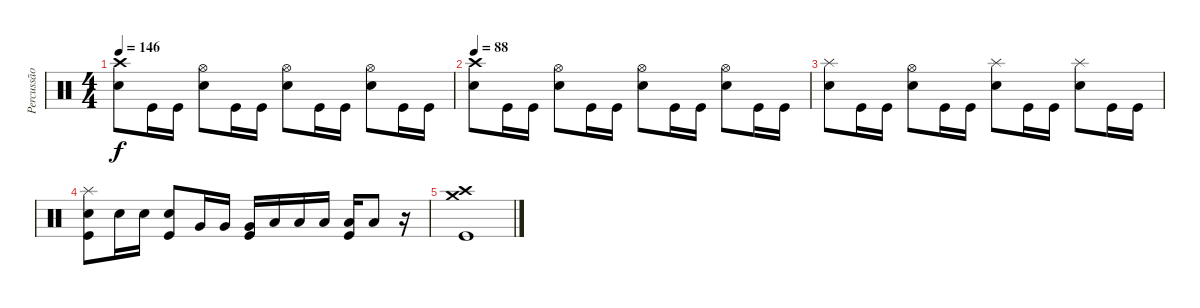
\track ("Percussão" "Percussão") {instrument percussion}
\staff {score}
\articulation defaults
\ts (4 4)
\tempo 146
\clef neutral
\ks c
("Crash high (hit)" "Snare (hit) 2").8{dy f} "Kick (hit)".16 "Kick (hit)".16 ("Hi-Hat (open)" "Snare (hit) 2").8 "Kick (hit)".16 "Kick (hit)".16 ("Hi-Hat (open)" "Snare (hit) 2").8 "Kick (hit)".16 "Kick (hit)".16 ("Hi-Hat (open)" "Snare (hit) 2").8 "Kick (hit)".16 "Kick (hit)".16 |
\tempo 88
("Crash high (hit)" "Snare (hit) 2").8 "Kick (hit)".16 "Kick (hit)".16 ("Hi-Hat (open)" "Snare (hit) 2").8 "Kick (hit)".16 "Kick (hit)".16 ("Hi-Hat (open)" "Snare (hit) 2").8 "Kick (hit)".16 "Kick (hit)".16 ("Hi-Hat (open)" "Snare (hit) 2").8 "Kick (hit)".16 "Kick (hit)".16 |
("Splash (hit)" "Snare (hit) 2").8 "Kick (hit)".16 "Kick (hit)".16 ("Hi-Hat (open)" "Snare (hit) 2").8 "Kick (hit)".16 "Kick (hit)".16 ("Splash (hit)" "Snare (hit) 2").8 "Kick (hit)".16 "Kick (hit)".16 ("Splash (hit)" "Snare (hit) 2").8 "Kick (hit)".16 "Kick (hit)".16 |
("Splash (hit)" "Snare (hit) 2" "Kick (hit)").8 "Snare (hit) 2".16 "Snare (hit) 2".16 ("Snare (hit) 2" "Kick (hit)").8 "Very Low Tom (hit)".16 "Very Low Tom (hit)".16 ("Very Low Tom (hit)" "Kick (hit)").16 "Low Tom (hit)".16 "Low Tom (hit)".16 "Low Tom (hit)".16 ("Low Floor Tom (hit)" "Kick (hit)").16 "Low Floor Tom (hit)".8 r.16 |
("Crash high (hit)" "Crash medium (hit)" "Kick (hit)").1
